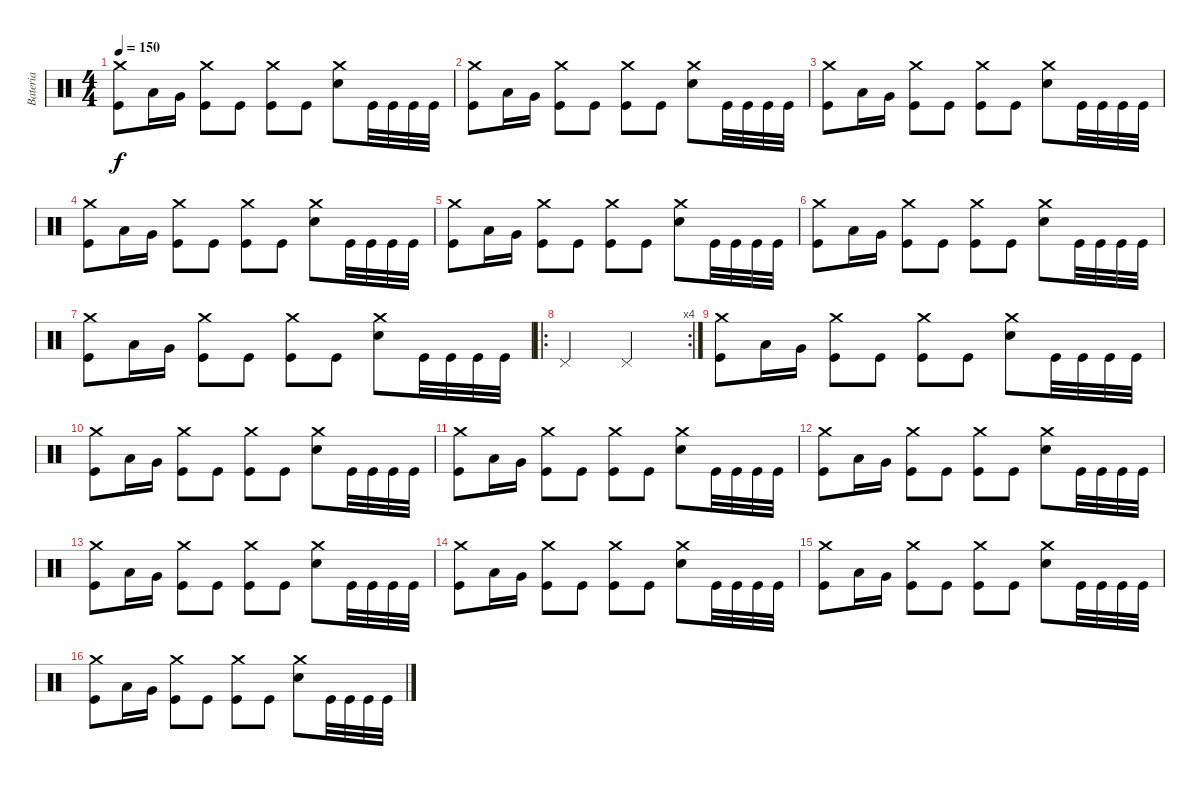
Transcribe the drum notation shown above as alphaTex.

\track ("Bateria" "Bateria") {instrument percussion}
\staff {score}
\articulation defaults
\ts (4 4)
\tempo 150
\clef neutral
\ks c
("Crash medium (hit)" "Kick (hit)").8{dy f} "Low Tom (hit)".16 "Very Low Tom (hit)".16 ("Crash medium (hit)" "Kick (hit)").8 "Kick (hit)".8 ("Crash medium (hit)" "Kick (hit)").8 "Kick (hit)".8 ("Crash medium (hit)" "Electric Snare (hit)").8 "Kick (hit)".32 "Kick (hit)".32 "Kick (hit)".32 "Kick (hit)".32 |
("Crash medium (hit)" "Kick (hit)").8 "Low Tom (hit)".16 "Very Low Tom (hit)".16 ("Crash medium (hit)" "Kick (hit)").8 "Kick (hit)".8 ("Crash medium (hit)" "Kick (hit)").8 "Kick (hit)".8 ("Crash medium (hit)" "Electric Snare (hit)").8 "Kick (hit)".32 "Kick (hit)".32 "Kick (hit)".32 "Kick (hit)".32 |
("Crash medium (hit)" "Kick (hit)").8 "Low Tom (hit)".16 "Very Low Tom (hit)".16 ("Crash medium (hit)" "Kick (hit)").8 "Kick (hit)".8 ("Crash medium (hit)" "Kick (hit)").8 "Kick (hit)".8 ("Crash medium (hit)" "Electric Snare (hit)").8 "Kick (hit)".32 "Kick (hit)".32 "Kick (hit)".32 "Kick (hit)".32 |
("Crash medium (hit)" "Kick (hit)").8 "Low Tom (hit)".16 "Very Low Tom (hit)".16 ("Crash medium (hit)" "Kick (hit)").8 "Kick (hit)".8 ("Crash medium (hit)" "Kick (hit)").8 "Kick (hit)".8 ("Crash medium (hit)" "Electric Snare (hit)").8 "Kick (hit)".32 "Kick (hit)".32 "Kick (hit)".32 "Kick (hit)".32 |
("Crash medium (hit)" "Kick (hit)").8 "Low Tom (hit)".16 "Very Low Tom (hit)".16 ("Crash medium (hit)" "Kick (hit)").8 "Kick (hit)".8 ("Crash medium (hit)" "Kick (hit)").8 "Kick (hit)".8 ("Crash medium (hit)" "Electric Snare (hit)").8 "Kick (hit)".32 "Kick (hit)".32 "Kick (hit)".32 "Kick (hit)".32 |
("Crash medium (hit)" "Kick (hit)").8 "Low Tom (hit)".16 "Very Low Tom (hit)".16 ("Crash medium (hit)" "Kick (hit)").8 "Kick (hit)".8 ("Crash medium (hit)" "Kick (hit)").8 "Kick (hit)".8 ("Crash medium (hit)" "Electric Snare (hit)").8 "Kick (hit)".32 "Kick (hit)".32 "Kick (hit)".32 "Kick (hit)".32 |
("Crash medium (hit)" "Kick (hit)").8 "Low Tom (hit)".16 "Very Low Tom (hit)".16 ("Crash medium (hit)" "Kick (hit)").8 "Kick (hit)".8 ("Crash medium (hit)" "Kick (hit)").8 "Kick (hit)".8 ("Crash medium (hit)" "Electric Snare (hit)").8 "Kick (hit)".32 "Kick (hit)".32 "Kick (hit)".32 "Kick (hit)".32 |
\ro
\rc 4 "Pedal Hi-Hat (hit)".2 "Pedal Hi-Hat (hit)".2
|
("Crash medium (hit)" "Kick (hit)").8 "Low Tom (hit)".16 "Very Low Tom (hit)".16 ("Crash medium (hit)" "Kick (hit)").8 "Kick (hit)".8 ("Crash medium (hit)" "Kick (hit)").8 "Kick (hit)".8 ("Crash medium (hit)" "Electric Snare (hit)").8 "Kick (hit)".32 "Kick (hit)".32 "Kick (hit)".32 "Kick (hit)".32 |
("Crash medium (hit)" "Kick (hit)").8 "Low Tom (hit)".16 "Very Low Tom (hit)".16 ("Crash medium (hit)" "Kick (hit)").8 "Kick (hit)".8 ("Crash medium (hit)" "Kick (hit)").8 "Kick (hit)".8 ("Crash medium (hit)" "Electric Snare (hit)").8 "Kick (hit)".32 "Kick (hit)".32 "Kick (hit)".32 "Kick (hit)".32 |
("Crash medium (hit)" "Kick (hit)").8 "Low Tom (hit)".16 "Very Low Tom (hit)".16 ("Crash medium (hit)" "Kick (hit)").8 "Kick (hit)".8 ("Crash medium (hit)" "Kick (hit)").8 "Kick (hit)".8 ("Crash medium (hit)" "Electric Snare (hit)").8 "Kick (hit)".32 "Kick (hit)".32 "Kick (hit)".32 "Kick (hit)".32 |
("Crash medium (hit)" "Kick (hit)").8 "Low Tom (hit)".16 "Very Low Tom (hit)".16 ("Crash medium (hit)" "Kick (hit)").8 "Kick (hit)".8 ("Crash medium (hit)" "Kick (hit)").8 "Kick (hit)".8 ("Crash medium (hit)" "Electric Snare (hit)").8 "Kick (hit)".32 "Kick (hit)".32 "Kick (hit)".32 "Kick (hit)".32 |
("Crash medium (hit)" "Kick (hit)").8 "Low Tom (hit)".16 "Very Low Tom (hit)".16 ("Crash medium (hit)" "Kick (hit)").8 "Kick (hit)".8 ("Crash medium (hit)" "Kick (hit)").8 "Kick (hit)".8 ("Crash medium (hit)" "Electric Snare (hit)").8 "Kick (hit)".32 "Kick (hit)".32 "Kick (hit)".32 "Kick (hit)".32 |
("Crash medium (hit)" "Kick (hit)").8 "Low Tom (hit)".16 "Very Low Tom (hit)".16 ("Crash medium (hit)" "Kick (hit)").8 "Kick (hit)".8 ("Crash medium (hit)" "Kick (hit)").8 "Kick (hit)".8 ("Crash medium (hit)" "Electric Snare (hit)").8 "Kick (hit)".32 "Kick (hit)".32 "Kick (hit)".32 "Kick (hit)".32 |
("Crash medium (hit)" "Kick (hit)").8 "Low Tom (hit)".16 "Very Low Tom (hit)".16 ("Crash medium (hit)" "Kick (hit)").8 "Kick (hit)".8 ("Crash medium (hit)" "Kick (hit)").8 "Kick (hit)".8 ("Crash medium (hit)" "Electric Snare (hit)").8 "Kick (hit)".32 "Kick (hit)".32 "Kick (hit)".32 "Kick (hit)".32 |
("Crash medium (hit)" "Kick (hit)").8 "Low Tom (hit)".16 "Very Low Tom (hit)".16 ("Crash medium (hit)" "Kick (hit)").8 "Kick (hit)".8 ("Crash medium (hit)" "Kick (hit)").8 "Kick (hit)".8 ("Crash medium (hit)" "Electric Snare (hit)").8 "Kick (hit)".32 "Kick (hit)".32 "Kick (hit)".32 "Kick (hit)".32
